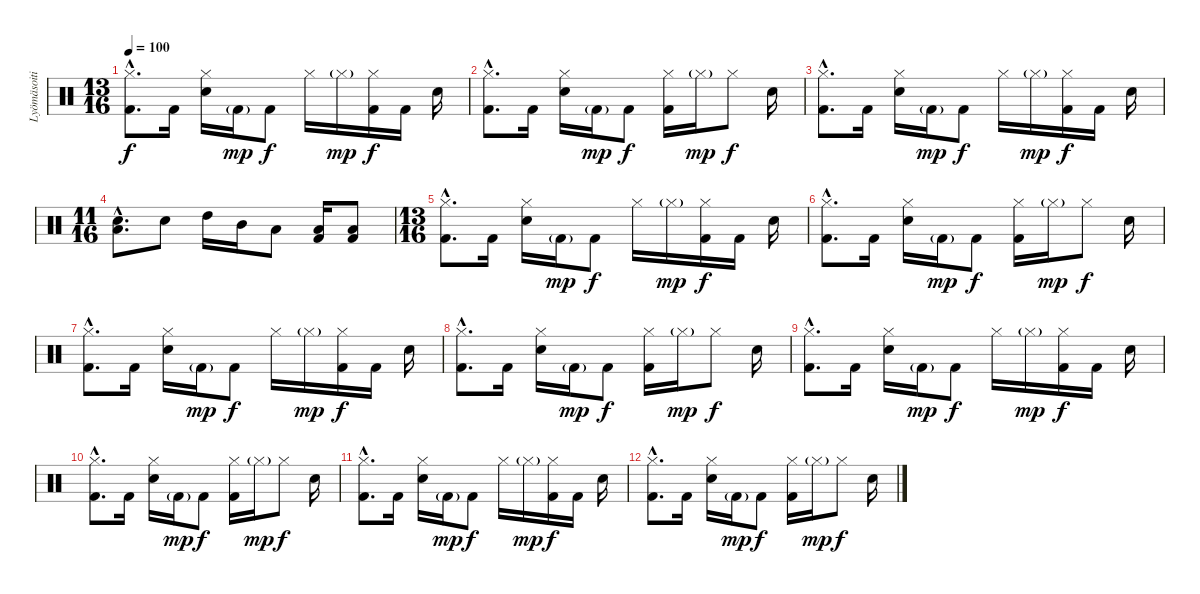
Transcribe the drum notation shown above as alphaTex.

\track ("Lyömäsoitin" "Lyömäsoiti") {instrument percussion}
\staff {score}
\articulation defaults
\ts (13 16)
\tempo 100
\clef neutral
\ks c
("Hi-Hat (closed)"{hac} "Kick (hit) 2"{hac}).8{d dy f} "Kick (hit) 2".16 ("Hi-Hat (closed)" "Electric Snare (hit)").16 "Kick (hit) 2"{g}.16{dy mp} "Kick (hit) 2".8{dy f} "Hi-Hat (closed)".16 "Hi-Hat (closed)"{g}.16{dy mp} ("Hi-Hat (closed)" "Kick (hit) 2").16{dy f} "Kick (hit) 2".16 "Electric Snare (hit)".16 |
("Hi-Hat (closed)"{hac} "Kick (hit) 2"{hac}).8{d} "Kick (hit) 2".16 ("Hi-Hat (closed)" "Electric Snare (hit)").16 "Kick (hit) 2"{g}.16{dy mp} "Kick (hit) 2".8{dy f} ("Hi-Hat (closed)" "Kick (hit) 2").16 "Hi-Hat (closed)"{g}.16{dy mp} "Hi-Hat (closed)".8{dy f} "Electric Snare (hit)".16 |
("Hi-Hat (closed)"{hac} "Kick (hit) 2"{hac}).8{d} "Kick (hit) 2".16 ("Hi-Hat (closed)" "Electric Snare (hit)").16 "Kick (hit) 2"{g}.16{dy mp} "Kick (hit) 2".8{dy f} "Hi-Hat (closed)".16 "Hi-Hat (closed)"{g}.16{dy mp} ("Hi-Hat (closed)" "Kick (hit) 2").16{dy f} "Kick (hit) 2".16 "Electric Snare (hit)".16 |
\ts (11 16)
("Low Tom (hit)"{hac} "Electric Snare (hit)"{hac}).8{d} "Electric Snare (hit)".8 "High Tom (hit)".16 "Mid Tom (hit)".16 "Low Tom (hit)".8 ("Low Floor Tom (hit)" "Kick (hit) 2").16 ("Low Floor Tom (hit)" "Kick (hit) 2").8 |
\ts (13 16)
("Hi-Hat (closed)"{hac} "Kick (hit) 2"{hac}).8{d} "Kick (hit) 2".16 ("Hi-Hat (closed)" "Electric Snare (hit)").16 "Kick (hit) 2"{g}.16{dy mp} "Kick (hit) 2".8{dy f} "Hi-Hat (closed)".16 "Hi-Hat (closed)"{g}.16{dy mp} ("Hi-Hat (closed)" "Kick (hit) 2").16{dy f} "Kick (hit) 2".16 "Electric Snare (hit)".16 |
("Hi-Hat (closed)"{hac} "Kick (hit) 2"{hac}).8{d} "Kick (hit) 2".16 ("Hi-Hat (closed)" "Electric Snare (hit)").16 "Kick (hit) 2"{g}.16{dy mp} "Kick (hit) 2".8{dy f} ("Hi-Hat (closed)" "Kick (hit) 2").16 "Hi-Hat (closed)"{g}.16{dy mp} "Hi-Hat (closed)".8{dy f} "Electric Snare (hit)".16 |
("Hi-Hat (closed)"{hac} "Kick (hit) 2"{hac}).8{d} "Kick (hit) 2".16 ("Hi-Hat (closed)" "Electric Snare (hit)").16 "Kick (hit) 2"{g}.16{dy mp} "Kick (hit) 2".8{dy f} "Hi-Hat (closed)".16 "Hi-Hat (closed)"{g}.16{dy mp} ("Hi-Hat (closed)" "Kick (hit) 2").16{dy f} "Kick (hit) 2".16 "Electric Snare (hit)".16 |
("Hi-Hat (closed)"{hac} "Kick (hit) 2"{hac}).8{d} "Kick (hit) 2".16 ("Hi-Hat (closed)" "Electric Snare (hit)").16 "Kick (hit) 2"{g}.16{dy mp} "Kick (hit) 2".8{dy f} ("Hi-Hat (closed)" "Kick (hit) 2").16 "Hi-Hat (closed)"{g}.16{dy mp} "Hi-Hat (closed)".8{dy f} "Electric Snare (hit)".16 |
("Hi-Hat (closed)"{hac} "Kick (hit) 2"{hac}).8{d} "Kick (hit) 2".16 ("Hi-Hat (closed)" "Electric Snare (hit)").16 "Kick (hit) 2"{g}.16{dy mp} "Kick (hit) 2".8{dy f} "Hi-Hat (closed)".16 "Hi-Hat (closed)"{g}.16{dy mp} ("Hi-Hat (closed)" "Kick (hit) 2").16{dy f} "Kick (hit) 2".16 "Electric Snare (hit)".16 |
("Hi-Hat (closed)"{hac} "Kick (hit) 2"{hac}).8{d} "Kick (hit) 2".16 ("Hi-Hat (closed)" "Electric Snare (hit)").16 "Kick (hit) 2"{g}.16{dy mp} "Kick (hit) 2".8{dy f} ("Hi-Hat (closed)" "Kick (hit) 2").16 "Hi-Hat (closed)"{g}.16{dy mp} "Hi-Hat (closed)".8{dy f} "Electric Snare (hit)".16 |
("Hi-Hat (closed)"{hac} "Kick (hit) 2"{hac}).8{d} "Kick (hit) 2".16 ("Hi-Hat (closed)" "Electric Snare (hit)").16 "Kick (hit) 2"{g}.16{dy mp} "Kick (hit) 2".8{dy f} "Hi-Hat (closed)".16 "Hi-Hat (closed)"{g}.16{dy mp} ("Hi-Hat (closed)" "Kick (hit) 2").16{dy f} "Kick (hit) 2".16 "Electric Snare (hit)".16 |
("Hi-Hat (closed)"{hac} "Kick (hit) 2"{hac}).8{d} "Kick (hit) 2".16 ("Hi-Hat (closed)" "Electric Snare (hit)").16 "Kick (hit) 2"{g}.16{dy mp} "Kick (hit) 2".8{dy f} ("Hi-Hat (closed)" "Kick (hit) 2").16 "Hi-Hat (closed)"{g}.16{dy mp} "Hi-Hat (closed)".8{dy f} "Electric Snare (hit)".16
